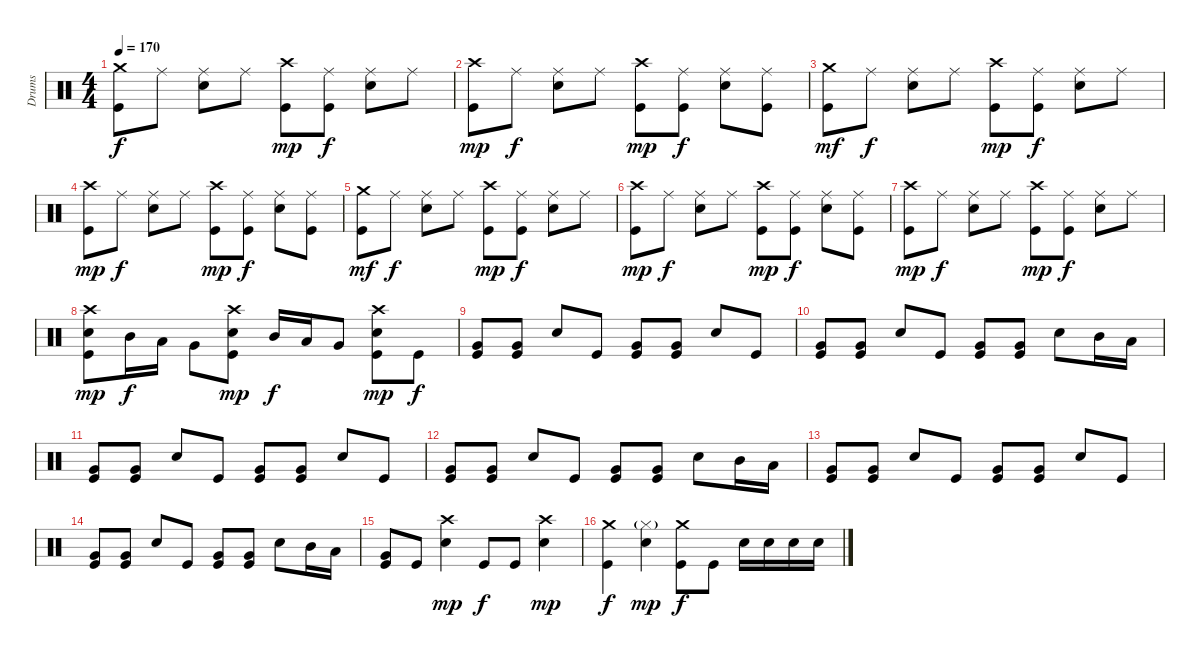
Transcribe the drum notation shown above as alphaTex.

\track ("Drums" "Drums") {instrument percussion}
\staff {score}
\articulation defaults
\ts (4 4)
\tempo 170
\clef neutral
\ks c
("Crash medium (hit)" "Kick (hit)").8{dy f} "Ride (middle)".8 ("Ride (middle)" "Snare (hit) 2").8 "Ride (middle)".8 ("Crash high (hit)" "Kick (hit)").8{dy mp} ("Ride (middle)" "Kick (hit)").8{dy f} ("Ride (middle)" "Snare (hit) 2").8 "Ride (middle)".8 |
("Crash high (hit)" "Kick (hit)").8{dy mp} "Ride (middle)".8{dy f} ("Ride (middle)" "Snare (hit) 2").8 "Ride (middle)".8 ("Crash high (hit)" "Kick (hit)").8{dy mp} ("Ride (middle)" "Kick (hit)").8{dy f} ("Ride (middle)" "Snare (hit) 2").8 ("Ride (middle)" "Kick (hit)").8 |
("Crash medium (hit)" "Kick (hit)").8{dy mf} "Ride (middle)".8{dy f} ("Ride (middle)" "Snare (hit) 2").8 "Ride (middle)".8 ("Crash high (hit)" "Kick (hit)").8{dy mp} ("Ride (middle)" "Kick (hit)").8{dy f} ("Ride (middle)" "Snare (hit) 2").8 "Ride (middle)".8 |
("Crash high (hit)" "Kick (hit)").8{dy mp} "Ride (middle)".8{dy f} ("Ride (middle)" "Snare (hit) 2").8 "Ride (middle)".8 ("Crash high (hit)" "Kick (hit)").8{dy mp} ("Ride (middle)" "Kick (hit)").8{dy f} ("Ride (middle)" "Snare (hit) 2").8 ("Ride (middle)" "Kick (hit)").8 |
("Crash medium (hit)" "Kick (hit)").8{dy mf} "Ride (middle)".8{dy f} ("Ride (middle)" "Snare (hit) 2").8 "Ride (middle)".8 ("Crash high (hit)" "Kick (hit)").8{dy mp} ("Ride (middle)" "Kick (hit)").8{dy f} ("Ride (middle)" "Snare (hit) 2").8 "Ride (middle)".8 |
("Crash high (hit)" "Kick (hit)").8{dy mp} "Ride (middle)".8{dy f} ("Ride (middle)" "Snare (hit) 2").8 "Ride (middle)".8 ("Crash high (hit)" "Kick (hit)").8{dy mp} ("Ride (middle)" "Kick (hit)").8{dy f} ("Ride (middle)" "Snare (hit) 2").8 ("Ride (middle)" "Kick (hit)").8 |
("Crash high (hit)" "Kick (hit)").8{dy mp} "Ride (middle)".8{dy f} ("Ride (middle)" "Snare (hit) 2").8 "Ride (middle)".8 ("Crash high (hit)" "Kick (hit)").8{dy mp} ("Ride (middle)" "Kick (hit)").8{dy f} ("Ride (middle)" "Snare (hit) 2").8 "Ride (middle)".8 |
("Crash high (hit)" "Snare (hit) 2" "Kick (hit)").8{dy mp} "Mid Tom (hit)".16{dy f} "Low Tom (hit)".16 "Very Low Tom (hit)".8 ("Crash high (hit)" "Snare (hit) 2" "Kick (hit)").8{dy mp} "Mid Tom (hit)".16{dy f} "Low Tom (hit)".16 "Very Low Tom (hit)".8 ("Crash high (hit)" "Snare (hit) 2" "Kick (hit)").8{dy mp} "Kick (hit)".8{dy f} |
("Very Low Tom (hit)" "Kick (hit)").8 ("Very Low Tom (hit)" "Kick (hit)").8 "Snare (hit) 2".8 "Kick (hit)".8 ("Very Low Tom (hit)" "Kick (hit)").8 ("Very Low Tom (hit)" "Kick (hit)").8 "Snare (hit) 2".8 "Kick (hit)".8 |
("Very Low Tom (hit)" "Kick (hit)").8 ("Very Low Tom (hit)" "Kick (hit)").8 "Snare (hit) 2".8 "Kick (hit)".8 ("Very Low Tom (hit)" "Kick (hit)").8 ("Very Low Tom (hit)" "Kick (hit)").8 "Snare (hit) 2".8 "Mid Tom (hit)".16 "Low Tom (hit)".16 |
("Very Low Tom (hit)" "Kick (hit)").8 ("Very Low Tom (hit)" "Kick (hit)").8 "Snare (hit) 2".8 "Kick (hit)".8 ("Very Low Tom (hit)" "Kick (hit)").8 ("Very Low Tom (hit)" "Kick (hit)").8 "Snare (hit) 2".8 "Kick (hit)".8 |
("Very Low Tom (hit)" "Kick (hit)").8 ("Very Low Tom (hit)" "Kick (hit)").8 "Snare (hit) 2".8 "Kick (hit)".8 ("Very Low Tom (hit)" "Kick (hit)").8 ("Very Low Tom (hit)" "Kick (hit)").8 "Snare (hit) 2".8 "Mid Tom (hit)".16 "Low Tom (hit)".16 |
("Very Low Tom (hit)" "Kick (hit)").8 ("Very Low Tom (hit)" "Kick (hit)").8 "Snare (hit) 2".8 "Kick (hit)".8 ("Very Low Tom (hit)" "Kick (hit)").8 ("Very Low Tom (hit)" "Kick (hit)").8 "Snare (hit) 2".8 "Kick (hit)".8 |
("Very Low Tom (hit)" "Kick (hit)").8 ("Very Low Tom (hit)" "Kick (hit)").8 "Snare (hit) 2".8 "Kick (hit)".8 ("Very Low Tom (hit)" "Kick (hit)").8 ("Very Low Tom (hit)" "Kick (hit)").8 "Snare (hit) 2".8 "Mid Tom (hit)".16 "Low Tom (hit)".16 |
("Very Low Tom (hit)" "Kick (hit)").8 "Kick (hit)".8 ("Crash high (hit)" "Snare (hit) 2").4{dy mp} "Kick (hit)".8{dy f} "Kick (hit)".8 ("Crash high (hit)" "Snare (hit) 2").4{dy mp} |
("Crash medium (hit)" "Kick (hit)").4{dy f} ("Hi-Hat (closed)"{g} "Snare (hit) 2").4{dy mp} ("Crash medium (hit)" "Kick (hit)").8{dy f} "Kick (hit)".8 "Snare (hit) 2".16 "Snare (hit) 2".16 "Snare (hit) 2".16 "Snare (hit) 2".16
